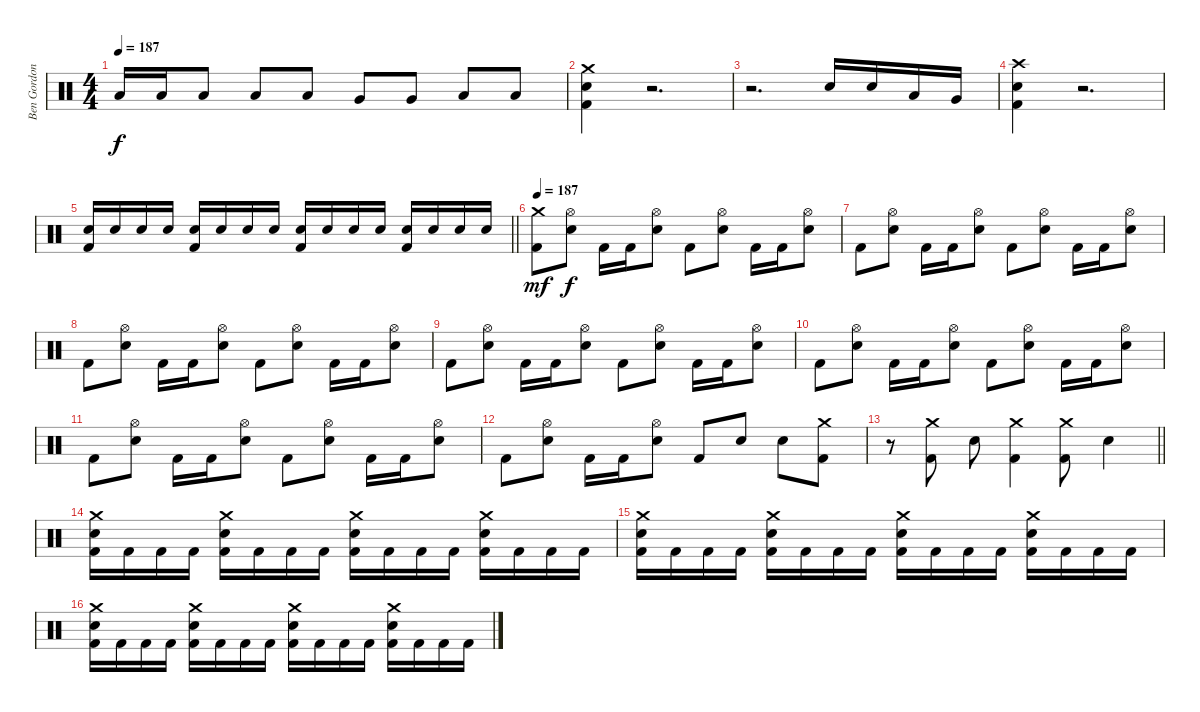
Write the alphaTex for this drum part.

\track ("Ben Gordon" "Ben Gordon") {instrument percussion}
\staff {score}
\articulation defaults
\ts (4 4)
\tempo 187
\clef neutral
\ks c "Low Tom (hit)".16{dy f} "Low Tom (hit)".16 "Low Tom (hit)".8 "Low Tom (hit)".8 "Low Tom (hit)".8 "Very Low Tom (hit)".8 "Very Low Tom (hit)".8 "Low Floor Tom (hit)".8 "Low Floor Tom (hit)".8
|
("Crash medium (hit)" "Electric Snare (hit)" "Kick (hit) 2").4 r.2{d} |
r.2{d} "Electric Snare (hit)".16 "Electric Snare (hit)".16 "Low Tom (hit)".16 "Very Low Tom (hit)".16 |
("Crash high (hit)" "Electric Snare (hit)" "Kick (hit) 2").4 r.2{d} |
\barLineRight lightlight
("Electric Snare (hit)" "Kick (hit) 2").16 "Electric Snare (hit)".16 "Electric Snare (hit)".16 "Electric Snare (hit)".16 ("Electric Snare (hit)" "Kick (hit) 2").16 "Electric Snare (hit)".16 "Electric Snare (hit)".16 "Electric Snare (hit)".16 ("Electric Snare (hit)" "Kick (hit) 2").16 "Electric Snare (hit)".16 "Electric Snare (hit)".16 "Electric Snare (hit)".16 ("Electric Snare (hit)" "Kick (hit) 2").16 "Electric Snare (hit)".16 "Electric Snare (hit)".16 "Electric Snare (hit)".16 |
\tempo 187
("Crash medium (hit)" "Kick (hit) 2").8{dy mf} ("Hi-Hat (open)" "Electric Snare (hit)").8{dy f} "Kick (hit) 2".16 "Kick (hit) 2".16 ("Hi-Hat (open)" "Electric Snare (hit)").8 "Kick (hit) 2".8 ("Hi-Hat (open)" "Electric Snare (hit)").8 "Kick (hit) 2".16 "Kick (hit) 2".16 ("Hi-Hat (open)" "Electric Snare (hit)").8 |
"Kick (hit) 2".8 ("Hi-Hat (open)" "Electric Snare (hit)").8 "Kick (hit) 2".16 "Kick (hit) 2".16 ("Hi-Hat (open)" "Electric Snare (hit)").8 "Kick (hit) 2".8 ("Hi-Hat (open)" "Electric Snare (hit)").8 "Kick (hit) 2".16 "Kick (hit) 2".16 ("Hi-Hat (open)" "Electric Snare (hit)").8 |
"Kick (hit) 2".8 ("Hi-Hat (open)" "Electric Snare (hit)").8 "Kick (hit) 2".16 "Kick (hit) 2".16 ("Hi-Hat (open)" "Electric Snare (hit)").8 "Kick (hit) 2".8 ("Hi-Hat (open)" "Electric Snare (hit)").8 "Kick (hit) 2".16 "Kick (hit) 2".16 ("Hi-Hat (open)" "Electric Snare (hit)").8 |
"Kick (hit) 2".8 ("Hi-Hat (open)" "Electric Snare (hit)").8 "Kick (hit) 2".16 "Kick (hit) 2".16 ("Hi-Hat (open)" "Electric Snare (hit)").8 "Kick (hit) 2".8 ("Hi-Hat (open)" "Electric Snare (hit)").8 "Kick (hit) 2".16 "Kick (hit) 2".16 ("Hi-Hat (open)" "Electric Snare (hit)").8 |
"Kick (hit) 2".8 ("Hi-Hat (open)" "Electric Snare (hit)").8 "Kick (hit) 2".16 "Kick (hit) 2".16 ("Hi-Hat (open)" "Electric Snare (hit)").8 "Kick (hit) 2".8 ("Hi-Hat (open)" "Electric Snare (hit)").8 "Kick (hit) 2".16 "Kick (hit) 2".16 ("Hi-Hat (open)" "Electric Snare (hit)").8 |
"Kick (hit) 2".8 ("Hi-Hat (open)" "Electric Snare (hit)").8 "Kick (hit) 2".16 "Kick (hit) 2".16 ("Hi-Hat (open)" "Electric Snare (hit)").8 "Kick (hit) 2".8 ("Hi-Hat (open)" "Electric Snare (hit)").8 "Kick (hit) 2".16 "Kick (hit) 2".16 ("Hi-Hat (open)" "Electric Snare (hit)").8 |
"Kick (hit) 2".8 ("Hi-Hat (open)" "Electric Snare (hit)").8 "Kick (hit) 2".16 "Kick (hit) 2".16 ("Hi-Hat (open)" "Electric Snare (hit)").8 "Kick (hit) 2".8 "Electric Snare (hit)".8 "Electric Snare (hit)".8 ("Crash medium (hit)" "Kick (hit) 2").8 |
\barLineRight lightlight
r.8 ("Crash medium (hit)" "Kick (hit) 2").8 "Electric Snare (hit)".8 ("Crash medium (hit)" "Kick (hit) 2").4 ("Crash medium (hit)" "Kick (hit) 2").8 "Electric Snare (hit)".4 |
("Crash medium (hit)" "Electric Snare (hit)" "Kick (hit) 2").16 "Kick (hit) 2".16 "Kick (hit) 2".16 "Kick (hit) 2".16 ("Crash medium (hit)" "Electric Snare (hit)" "Kick (hit) 2").16 "Kick (hit) 2".16 "Kick (hit) 2".16 "Kick (hit) 2".16 ("Crash medium (hit)" "Electric Snare (hit)" "Kick (hit) 2").16 "Kick (hit) 2".16 "Kick (hit) 2".16 "Kick (hit) 2".16 ("Crash medium (hit)" "Electric Snare (hit)" "Kick (hit) 2").16 "Kick (hit) 2".16 "Kick (hit) 2".16 "Kick (hit) 2".16 |
("Crash medium (hit)" "Electric Snare (hit)" "Kick (hit) 2").16 "Kick (hit) 2".16 "Kick (hit) 2".16 "Kick (hit) 2".16 ("Crash medium (hit)" "Electric Snare (hit)" "Kick (hit) 2").16 "Kick (hit) 2".16 "Kick (hit) 2".16 "Kick (hit) 2".16 ("Crash medium (hit)" "Electric Snare (hit)" "Kick (hit) 2").16 "Kick (hit) 2".16 "Kick (hit) 2".16 "Kick (hit) 2".16 ("Crash medium (hit)" "Electric Snare (hit)" "Kick (hit) 2").16 "Kick (hit) 2".16 "Kick (hit) 2".16 "Kick (hit) 2".16 |
("Crash medium (hit)" "Electric Snare (hit)" "Kick (hit) 2").16 "Kick (hit) 2".16 "Kick (hit) 2".16 "Kick (hit) 2".16 ("Crash medium (hit)" "Electric Snare (hit)" "Kick (hit) 2").16 "Kick (hit) 2".16 "Kick (hit) 2".16 "Kick (hit) 2".16 ("Crash medium (hit)" "Electric Snare (hit)" "Kick (hit) 2").16 "Kick (hit) 2".16 "Kick (hit) 2".16 "Kick (hit) 2".16 ("Crash medium (hit)" "Electric Snare (hit)" "Kick (hit) 2").16 "Kick (hit) 2".16 "Kick (hit) 2".16 "Kick (hit) 2".16
